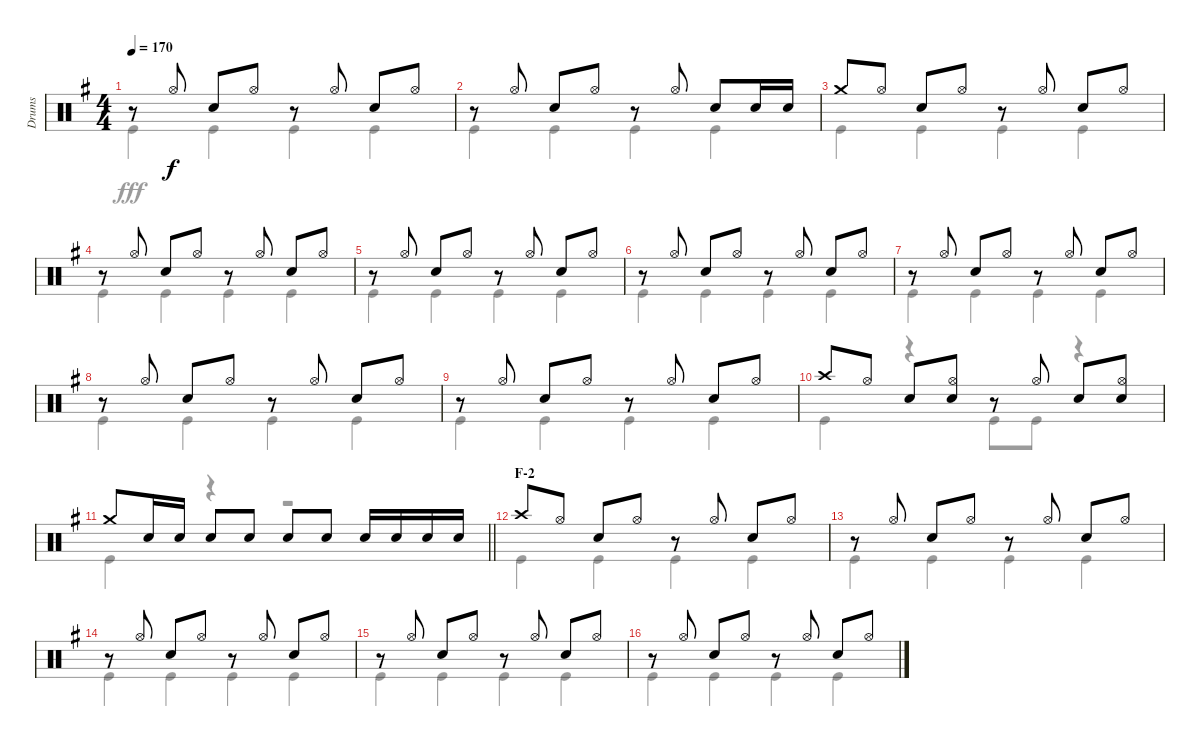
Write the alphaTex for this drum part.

\track ("Drums" "Drums") {instrument percussion}
\staff {score}
\articulation defaults
\voice
\ts (4 4)
\tempo 170
\clef neutral
\ks g
r.8{dy f} "Hi-Hat (open)".8 "Snare (hit) 2".8 "Hi-Hat (open)".8 r.8 "Hi-Hat (open)".8 "Snare (hit) 2".8 "Hi-Hat (open)".8 |
r.8 "Hi-Hat (open)".8 "Snare (hit) 2".8 "Hi-Hat (open)".8 r.8 "Hi-Hat (open)".8 "Snare (hit) 2".8 "Snare (hit) 2".16 "Snare (hit) 2".16 |
"Crash medium (hit)".8 "Hi-Hat (open)".8 "Snare (hit) 2".8 "Hi-Hat (open)".8 r.8 "Hi-Hat (open)".8 "Snare (hit) 2".8 "Hi-Hat (open)".8 |
r.8 "Hi-Hat (open)".8 "Snare (hit) 2".8 "Hi-Hat (open)".8 r.8 "Hi-Hat (open)".8 "Snare (hit) 2".8 "Hi-Hat (open)".8 |
r.8 "Hi-Hat (open)".8 "Snare (hit) 2".8 "Hi-Hat (open)".8 r.8 "Hi-Hat (open)".8 "Snare (hit) 2".8 "Hi-Hat (open)".8 |
r.8 "Hi-Hat (open)".8 "Snare (hit) 2".8 "Hi-Hat (open)".8 r.8 "Hi-Hat (open)".8 "Snare (hit) 2".8 "Hi-Hat (open)".8 |
r.8 "Hi-Hat (open)".8 "Snare (hit) 2".8 "Hi-Hat (open)".8 r.8 "Hi-Hat (open)".8 "Snare (hit) 2".8 "Hi-Hat (open)".8 |
r.8 "Hi-Hat (open)".8 "Snare (hit) 2".8 "Hi-Hat (open)".8 r.8 "Hi-Hat (open)".8 "Snare (hit) 2".8 "Hi-Hat (open)".8 |
r.8 "Hi-Hat (open)".8 "Snare (hit) 2".8 "Hi-Hat (open)".8 r.8 "Hi-Hat (open)".8 "Snare (hit) 2".8 "Hi-Hat (open)".8 |
"Crash high (hit)".8 "Hi-Hat (open)".8 "Snare (hit) 2".8 ("Hi-Hat (open)" "Snare (hit) 2").8 r.8 "Hi-Hat (open)".8 "Snare (hit) 2".8 ("Hi-Hat (open)" "Snare (hit) 2").8 |
\barLineRight lightlight "Crash medium (hit)".8 "Snare (hit) 2".16 "Snare (hit) 2".16 "Snare (hit) 2".8 "Snare (hit) 2".8 "Snare (hit) 2".8 "Snare (hit) 2".8 "Snare (hit) 2".16 "Snare (hit) 2".16 "Snare (hit) 2".16 "Snare (hit) 2".16
|
\section ("" "F-2")
"Crash high (hit)".8 "Hi-Hat (open)".8 "Snare (hit) 2".8 "Hi-Hat (open)".8 r.8 "Hi-Hat (open)".8 "Snare (hit) 2".8 "Hi-Hat (open)".8 |
r.8 "Hi-Hat (open)".8 "Snare (hit) 2".8 "Hi-Hat (open)".8 r.8 "Hi-Hat (open)".8 "Snare (hit) 2".8 "Hi-Hat (open)".8 |
r.8 "Hi-Hat (open)".8 "Snare (hit) 2".8 "Hi-Hat (open)".8 r.8 "Hi-Hat (open)".8 "Snare (hit) 2".8 "Hi-Hat (open)".8 |
r.8 "Hi-Hat (open)".8 "Snare (hit) 2".8 "Hi-Hat (open)".8 r.8 "Hi-Hat (open)".8 "Snare (hit) 2".8 "Hi-Hat (open)".8 |
r.8 "Hi-Hat (open)".8 "Snare (hit) 2".8 "Hi-Hat (open)".8 r.8 "Hi-Hat (open)".8 "Snare (hit) 2".8 "Hi-Hat (open)".8
\voice
\clef neutral
\ottava regular
\simile none
\ks g "Kick (hit)".4{dy fff} "Kick (hit)".4 "Kick (hit)".4 "Kick (hit)".4
|
"Kick (hit)".4 "Kick (hit)".4 "Kick (hit)".4 "Kick (hit)".4 |
"Kick (hit)".4 "Kick (hit)".4 "Kick (hit)".4 "Kick (hit)".4 |
"Kick (hit)".4 "Kick (hit)".4 "Kick (hit)".4 "Kick (hit)".4 |
"Kick (hit)".4 "Kick (hit)".4 "Kick (hit)".4 "Kick (hit)".4 |
"Kick (hit)".4 "Kick (hit)".4 "Kick (hit)".4 "Kick (hit)".4 |
"Kick (hit)".4 "Kick (hit)".4 "Kick (hit)".4 "Kick (hit)".4 |
"Kick (hit)".4 "Kick (hit)".4 "Kick (hit)".4 "Kick (hit)".4 |
"Kick (hit)".4 "Kick (hit)".4 "Kick (hit)".4 "Kick (hit)".4 |
"Kick (hit)".4 r.4 "Kick (hit)".8 "Kick (hit)".8 r.4 |
\barLineRight lightlight "Kick (hit)".4
r.4 r.2 |
"Kick (hit)".4 "Kick (hit)".4 "Kick (hit)".4 "Kick (hit)".4 |
"Kick (hit)".4 "Kick (hit)".4 "Kick (hit)".4 "Kick (hit)".4 |
"Kick (hit)".4 "Kick (hit)".4 "Kick (hit)".4 "Kick (hit)".4 |
"Kick (hit)".4 "Kick (hit)".4 "Kick (hit)".4 "Kick (hit)".4 |
"Kick (hit)".4 "Kick (hit)".4 "Kick (hit)".4 "Kick (hit)".4
